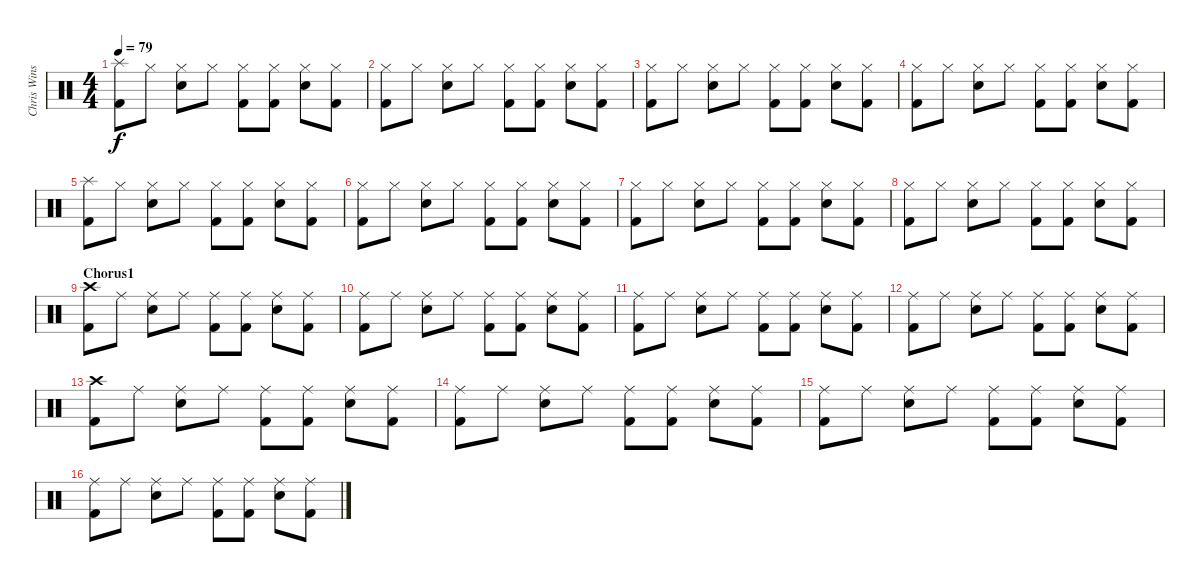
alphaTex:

\track ("Chris Winship (Drums)" "Chris Wins") {instrument percussion}
\staff {score}
\articulation defaults
\ts (4 4)
\tempo 79
\clef neutral
\ks c
("Splash (hit)" "Kick (hit) 2").8{dy f} "Hi-Hat (closed)".8 ("Hi-Hat (closed)" "Snare (hit) 2").8 "Hi-Hat (closed)".8 ("Hi-Hat (closed)" "Kick (hit) 2").8 ("Hi-Hat (closed)" "Kick (hit) 2").8 ("Hi-Hat (closed)" "Snare (hit) 2").8 ("Hi-Hat (closed)" "Kick (hit) 2").8 |
("Hi-Hat (closed)" "Kick (hit) 2").8 "Hi-Hat (closed)".8 ("Hi-Hat (closed)" "Snare (hit) 2").8 "Hi-Hat (closed)".8 ("Hi-Hat (closed)" "Kick (hit) 2").8 ("Hi-Hat (closed)" "Kick (hit) 2").8 ("Hi-Hat (closed)" "Snare (hit) 2").8 ("Hi-Hat (closed)" "Kick (hit) 2").8 |
("Hi-Hat (closed)" "Kick (hit) 2").8 "Hi-Hat (closed)".8 ("Hi-Hat (closed)" "Snare (hit) 2").8 "Hi-Hat (closed)".8 ("Hi-Hat (closed)" "Kick (hit) 2").8 ("Hi-Hat (closed)" "Kick (hit) 2").8 ("Hi-Hat (closed)" "Snare (hit) 2").8 ("Hi-Hat (closed)" "Kick (hit) 2").8 |
("Hi-Hat (closed)" "Kick (hit) 2").8 "Hi-Hat (closed)".8 ("Hi-Hat (closed)" "Snare (hit) 2").8 "Hi-Hat (closed)".8 ("Hi-Hat (closed)" "Kick (hit) 2").8 ("Hi-Hat (closed)" "Kick (hit) 2").8 ("Hi-Hat (closed)" "Snare (hit) 2").8 ("Hi-Hat (closed)" "Kick (hit) 2").8 |
("Splash (hit)" "Kick (hit) 2").8 "Hi-Hat (closed)".8 ("Hi-Hat (closed)" "Snare (hit) 2").8 "Hi-Hat (closed)".8 ("Hi-Hat (closed)" "Kick (hit) 2").8 ("Hi-Hat (closed)" "Kick (hit) 2").8 ("Hi-Hat (closed)" "Snare (hit) 2").8 ("Hi-Hat (closed)" "Kick (hit) 2").8 |
("Hi-Hat (closed)" "Kick (hit) 2").8 "Hi-Hat (closed)".8 ("Hi-Hat (closed)" "Snare (hit) 2").8 "Hi-Hat (closed)".8 ("Hi-Hat (closed)" "Kick (hit) 2").8 ("Hi-Hat (closed)" "Kick (hit) 2").8 ("Hi-Hat (closed)" "Snare (hit) 2").8 ("Hi-Hat (closed)" "Kick (hit) 2").8 |
("Hi-Hat (closed)" "Kick (hit) 2").8 "Hi-Hat (closed)".8 ("Hi-Hat (closed)" "Snare (hit) 2").8 "Hi-Hat (closed)".8 ("Hi-Hat (closed)" "Kick (hit) 2").8 ("Hi-Hat (closed)" "Kick (hit) 2").8 ("Hi-Hat (closed)" "Snare (hit) 2").8 ("Hi-Hat (closed)" "Kick (hit) 2").8 |
("Hi-Hat (closed)" "Kick (hit) 2").8 "Hi-Hat (closed)".8 ("Hi-Hat (closed)" "Snare (hit) 2").8 "Hi-Hat (closed)".8 ("Hi-Hat (closed)" "Kick (hit) 2").8 ("Hi-Hat (closed)" "Kick (hit) 2").8 ("Hi-Hat (closed)" "Snare (hit) 2").8 ("Hi-Hat (closed)" "Kick (hit) 2").8 |
\section ("" "Chorus1")
("Crash high (hit)" "Kick (hit) 2").8 "Ride (middle)".8 ("Ride (middle)" "Snare (hit) 2").8 "Ride (middle)".8 ("Ride (middle)" "Kick (hit) 2").8 ("Ride (middle)" "Kick (hit) 2").8 ("Ride (middle)" "Snare (hit) 2").8 ("Ride (middle)" "Kick (hit) 2").8 |
("Ride (middle)" "Kick (hit) 2").8 "Ride (middle)".8 ("Ride (middle)" "Snare (hit) 2").8 "Ride (middle)".8 ("Ride (middle)" "Kick (hit) 2").8 ("Ride (middle)" "Kick (hit) 2").8 ("Ride (middle)" "Snare (hit) 2").8 ("Ride (middle)" "Kick (hit) 2").8 |
("Ride (middle)" "Kick (hit) 2").8 "Ride (middle)".8 ("Ride (middle)" "Snare (hit) 2").8 "Ride (middle)".8 ("Ride (middle)" "Kick (hit) 2").8 ("Ride (middle)" "Kick (hit) 2").8 ("Ride (middle)" "Snare (hit) 2").8 ("Ride (middle)" "Kick (hit) 2").8 |
("Ride (middle)" "Kick (hit) 2").8 "Ride (middle)".8 ("Ride (middle)" "Snare (hit) 2").8 "Ride (middle)".8 ("Ride (middle)" "Kick (hit) 2").8 ("Ride (middle)" "Kick (hit) 2").8 ("Ride (middle)" "Snare (hit) 2").8 ("Ride (middle)" "Kick (hit) 2").8 |
("Crash high (hit)" "Kick (hit) 2").8 "Ride (middle)".8 ("Ride (middle)" "Snare (hit) 2").8 "Ride (middle)".8 ("Ride (middle)" "Kick (hit) 2").8 ("Ride (middle)" "Kick (hit) 2").8 ("Ride (middle)" "Snare (hit) 2").8 ("Ride (middle)" "Kick (hit) 2").8 |
("Ride (middle)" "Kick (hit) 2").8 "Ride (middle)".8 ("Ride (middle)" "Snare (hit) 2").8 "Ride (middle)".8 ("Ride (middle)" "Kick (hit) 2").8 ("Ride (middle)" "Kick (hit) 2").8 ("Ride (middle)" "Snare (hit) 2").8 ("Ride (middle)" "Kick (hit) 2").8 |
("Ride (middle)" "Kick (hit) 2").8 "Ride (middle)".8 ("Ride (middle)" "Snare (hit) 2").8 "Ride (middle)".8 ("Ride (middle)" "Kick (hit) 2").8 ("Ride (middle)" "Kick (hit) 2").8 ("Ride (middle)" "Snare (hit) 2").8 ("Ride (middle)" "Kick (hit) 2").8 |
("Ride (middle)" "Kick (hit) 2").8 "Ride (middle)".8 ("Ride (middle)" "Snare (hit) 2").8 "Ride (middle)".8 ("Ride (middle)" "Kick (hit) 2").8 ("Ride (middle)" "Kick (hit) 2").8 ("Ride (middle)" "Snare (hit) 2").8 ("Ride (middle)" "Kick (hit) 2").8
